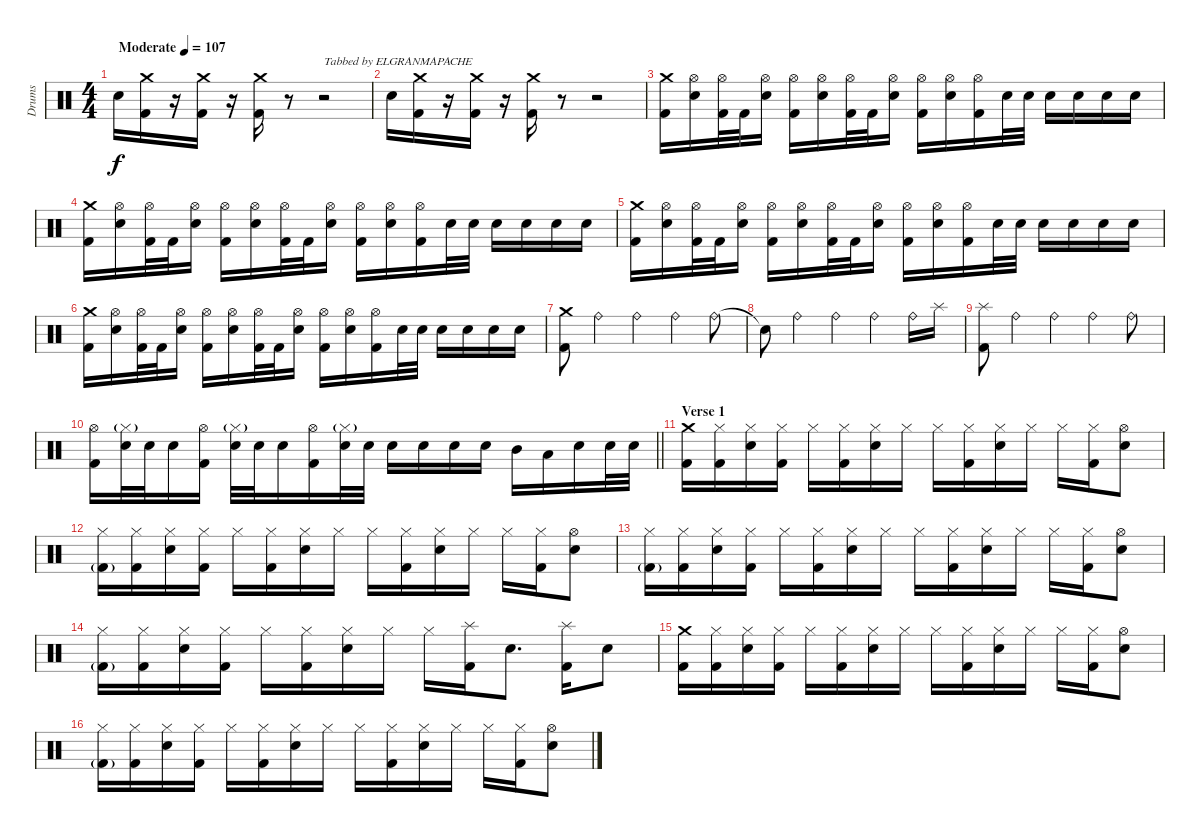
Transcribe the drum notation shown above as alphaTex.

\track ("Drums" "Drums") {instrument percussion}
\staff {score}
\articulation defaults
\ts (4 4)
\tempo (107 "Moderate")
\clef neutral
\ks c "Electric Snare (hit)".16{dy f}
("Crash medium (hit)" "Kick (hit) 2").16 r.16 ("Crash medium (hit)" "Kick (hit) 2").16 r.16 ("Crash medium (hit)" "Kick (hit) 2").16 r.8 r.2{txt "Tabbed by ELGRANMAPACHE"} |
"Electric Snare (hit)".16 ("Crash medium (hit)" "Kick (hit) 2").16 r.16 ("Crash medium (hit)" "Kick (hit) 2").16 r.16 ("Crash medium (hit)" "Kick (hit) 2").16 r.8 r.2 |
("Crash medium (hit)" "Kick (hit) 2").16 ("Hi-Hat (open)" "Electric Snare (hit)").16 ("Hi-Hat (open)" "Kick (hit) 2").32 "Kick (hit) 2".32 ("Hi-Hat (open)" "Electric Snare (hit)").16 ("Hi-Hat (open)" "Kick (hit) 2").16 ("Hi-Hat (open)" "Electric Snare (hit)").16 ("Hi-Hat (open)" "Kick (hit) 2").32 "Kick (hit) 2".32 ("Hi-Hat (open)" "Electric Snare (hit)").16 ("Hi-Hat (open)" "Kick (hit) 2").16 ("Hi-Hat (open)" "Electric Snare (hit)").16 ("Hi-Hat (open)" "Kick (hit) 2").16 "Electric Snare (hit)".32 "Electric Snare (hit)".32 "Electric Snare (hit)".16 "Electric Snare (hit)".16 "Electric Snare (hit)".16 "Electric Snare (hit)".16 |
("Crash medium (hit)" "Kick (hit) 2").16 ("Hi-Hat (open)" "Electric Snare (hit)").16 ("Hi-Hat (open)" "Kick (hit) 2").32 "Kick (hit) 2".32 ("Hi-Hat (open)" "Electric Snare (hit)").16 ("Hi-Hat (open)" "Kick (hit) 2").16 ("Hi-Hat (open)" "Electric Snare (hit)").16 ("Hi-Hat (open)" "Kick (hit) 2").32 "Kick (hit) 2".32 ("Hi-Hat (open)" "Electric Snare (hit)").16 ("Hi-Hat (open)" "Kick (hit) 2").16 ("Hi-Hat (open)" "Electric Snare (hit)").16 ("Hi-Hat (open)" "Kick (hit) 2").16 "Electric Snare (hit)".32 "Electric Snare (hit)".32 "Electric Snare (hit)".16 "Electric Snare (hit)".16 "Electric Snare (hit)".16 "Electric Snare (hit)".16 |
("Crash medium (hit)" "Kick (hit) 2").16 ("Hi-Hat (open)" "Electric Snare (hit)").16 ("Hi-Hat (open)" "Kick (hit) 2").32 "Kick (hit) 2".32 ("Hi-Hat (open)" "Electric Snare (hit)").16 ("Hi-Hat (open)" "Kick (hit) 2").16 ("Hi-Hat (open)" "Electric Snare (hit)").16 ("Hi-Hat (open)" "Kick (hit) 2").32 "Kick (hit) 2".32 ("Hi-Hat (open)" "Electric Snare (hit)").16 ("Hi-Hat (open)" "Kick (hit) 2").16 ("Hi-Hat (open)" "Electric Snare (hit)").16 ("Hi-Hat (open)" "Kick (hit) 2").16 "Electric Snare (hit)".32 "Electric Snare (hit)".32 "Electric Snare (hit)".16 "Electric Snare (hit)".16 "Electric Snare (hit)".16 "Electric Snare (hit)".16 |
("Crash medium (hit)" "Kick (hit) 2").16 ("Hi-Hat (open)" "Electric Snare (hit)").16 ("Hi-Hat (open)" "Kick (hit) 2").32 "Kick (hit) 2".32 ("Hi-Hat (open)" "Electric Snare (hit)").16 ("Hi-Hat (open)" "Kick (hit) 2").16 ("Hi-Hat (open)" "Electric Snare (hit)").16 ("Hi-Hat (open)" "Kick (hit) 2").32 "Kick (hit) 2".32 ("Hi-Hat (open)" "Electric Snare (hit)").16 ("Hi-Hat (open)" "Kick (hit) 2").16 ("Hi-Hat (open)" "Electric Snare (hit)").16 ("Hi-Hat (open)" "Kick (hit) 2").16 "Electric Snare (hit)".32 "Electric Snare (hit)".32 "Electric Snare (hit)".16 "Electric Snare (hit)".16 "Electric Snare (hit)".16 "Electric Snare (hit)".16 |
("Crash medium (hit)" "Kick (hit) 2").8 "Ride (bell)".4 "Ride (bell)".4 "Ride (bell)".4 "Ride (bell)".8 |
"Snare (hit)"{t}.8 "Ride (bell)".4 "Ride (bell)".4 "Ride (bell)".4 "Ride (bell)".16 "Splash (hit)".16 |
("Splash (hit)" "Kick (hit) 2").8 "Ride (bell)".4 "Ride (bell)".4 "Ride (bell)".4 "Ride (bell)".8 |
\barLineRight lightlight
("Hi-Hat (open)" "Kick (hit) 2").16 ("Hi-Hat (closed)"{g} "Electric Snare (hit)").32 "Electric Snare (hit)".32 "Electric Snare (hit)".16 ("Hi-Hat (open)" "Kick (hit) 2").16 ("Hi-Hat (closed)"{g} "Electric Snare (hit)").32 "Electric Snare (hit)".32 "Electric Snare (hit)".16 ("Hi-Hat (open)" "Kick (hit) 2").16 ("Hi-Hat (closed)"{g} "Electric Snare (hit)").32 "Electric Snare (hit)".32 "Electric Snare (hit)".16 "Electric Snare (hit)".16 "Electric Snare (hit)".16 "Electric Snare (hit)".16 "Mid Tom (hit)".16 "Low Tom (hit)".16 "Electric Snare (hit)".16 "Electric Snare (hit)".32 "Electric Snare (hit)".32 |
\section ("" "Verse 1")
("Crash medium (hit)" "Kick (hit) 2").16 ("Hi-Hat (closed)" "Kick (hit) 2").16 ("Hi-Hat (closed)" "Electric Snare (hit)").16 ("Hi-Hat (closed)" "Kick (hit) 2").16 "Hi-Hat (closed)".16 ("Hi-Hat (closed)" "Kick (hit) 2").16 ("Hi-Hat (closed)" "Electric Snare (hit)").16 "Hi-Hat (closed)".16 "Hi-Hat (closed)".16 ("Hi-Hat (closed)" "Kick (hit) 2").16 ("Hi-Hat (closed)" "Electric Snare (hit)").16 "Hi-Hat (closed)".16 "Hi-Hat (closed)".16 ("Hi-Hat (closed)" "Kick (hit) 2").16 ("Hi-Hat (open)" "Electric Snare (hit)").8 |
("Hi-Hat (closed)" "Kick (hit) 2"{g}).16 ("Hi-Hat (closed)" "Kick (hit) 2").16 ("Hi-Hat (closed)" "Electric Snare (hit)").16 ("Hi-Hat (closed)" "Kick (hit) 2").16 "Hi-Hat (closed)".16 ("Hi-Hat (closed)" "Kick (hit) 2").16 ("Hi-Hat (closed)" "Electric Snare (hit)").16 "Hi-Hat (closed)".16 "Hi-Hat (closed)".16 ("Hi-Hat (closed)" "Kick (hit) 2").16 ("Hi-Hat (closed)" "Electric Snare (hit)").16 "Hi-Hat (closed)".16 "Hi-Hat (closed)".16 ("Hi-Hat (closed)" "Kick (hit) 2").16 ("Hi-Hat (open)" "Electric Snare (hit)").8 |
("Hi-Hat (closed)" "Kick (hit) 2"{g}).16 ("Hi-Hat (closed)" "Kick (hit) 2").16 ("Hi-Hat (closed)" "Electric Snare (hit)").16 ("Hi-Hat (closed)" "Kick (hit) 2").16 "Hi-Hat (closed)".16 ("Hi-Hat (closed)" "Kick (hit) 2").16 ("Hi-Hat (closed)" "Electric Snare (hit)").16 "Hi-Hat (closed)".16 "Hi-Hat (closed)".16 ("Hi-Hat (closed)" "Kick (hit) 2").16 ("Hi-Hat (closed)" "Electric Snare (hit)").16 "Hi-Hat (closed)".16 "Hi-Hat (closed)".16 ("Hi-Hat (closed)" "Kick (hit) 2").16 ("Hi-Hat (open)" "Electric Snare (hit)").8 |
("Hi-Hat (closed)" "Kick (hit) 2"{g}).16 ("Hi-Hat (closed)" "Kick (hit) 2").16 ("Hi-Hat (closed)" "Electric Snare (hit)").16 ("Hi-Hat (closed)" "Kick (hit) 2").16 "Hi-Hat (closed)".16 ("Hi-Hat (closed)" "Kick (hit) 2").16 ("Hi-Hat (closed)" "Electric Snare (hit)").16 "Hi-Hat (closed)".16 "Hi-Hat (closed)".16 ("Splash (hit)" "Kick (hit) 2").16 "Electric Snare (hit)".8{d} ("Splash (hit)" "Kick (hit) 2").16 "Electric Snare (hit)".8 |
("Crash medium (hit)" "Kick (hit) 2").16 ("Hi-Hat (closed)" "Kick (hit) 2").16 ("Hi-Hat (closed)" "Electric Snare (hit)").16 ("Hi-Hat (closed)" "Kick (hit) 2").16 "Hi-Hat (closed)".16 ("Hi-Hat (closed)" "Kick (hit) 2").16 ("Hi-Hat (closed)" "Electric Snare (hit)").16 "Hi-Hat (closed)".16 "Hi-Hat (closed)".16 ("Hi-Hat (closed)" "Kick (hit) 2").16 ("Hi-Hat (closed)" "Electric Snare (hit)").16 "Hi-Hat (closed)".16 "Hi-Hat (closed)".16 ("Hi-Hat (closed)" "Kick (hit) 2").16 ("Hi-Hat (open)" "Electric Snare (hit)").8 |
("Hi-Hat (closed)" "Kick (hit) 2"{g}).16 ("Hi-Hat (closed)" "Kick (hit) 2").16 ("Hi-Hat (closed)" "Electric Snare (hit)").16 ("Hi-Hat (closed)" "Kick (hit) 2").16 "Hi-Hat (closed)".16 ("Hi-Hat (closed)" "Kick (hit) 2").16 ("Hi-Hat (closed)" "Electric Snare (hit)").16 "Hi-Hat (closed)".16 "Hi-Hat (closed)".16 ("Hi-Hat (closed)" "Kick (hit) 2").16 ("Hi-Hat (closed)" "Electric Snare (hit)").16 "Hi-Hat (closed)".16 "Hi-Hat (closed)".16 ("Hi-Hat (closed)" "Kick (hit) 2").16 ("Hi-Hat (open)" "Electric Snare (hit)").8
